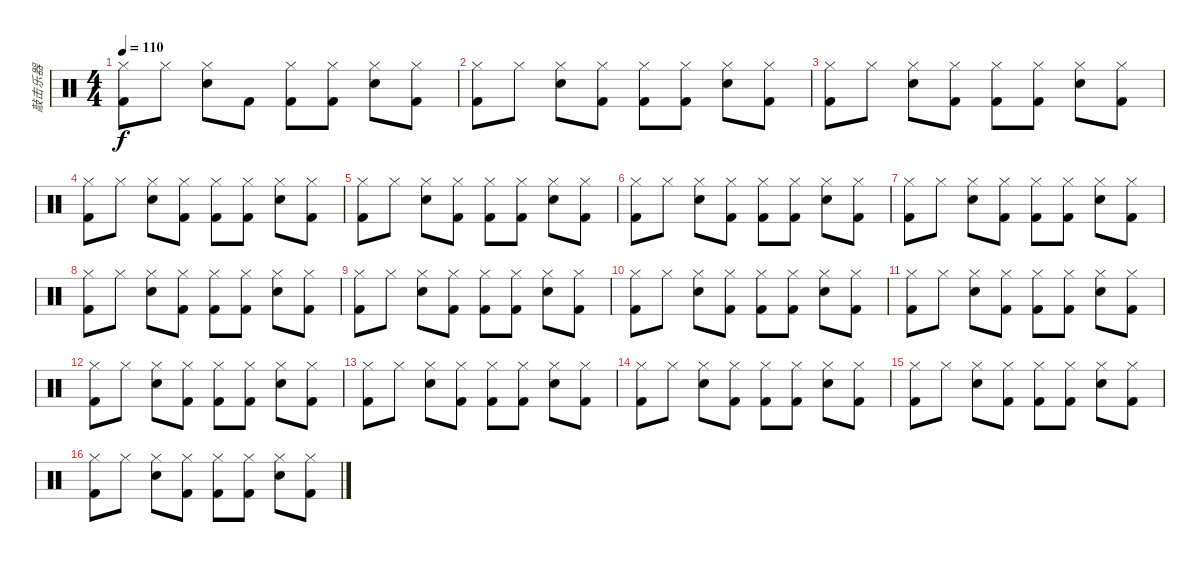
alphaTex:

\track ("敲击乐器" "敲击乐器") {instrument percussion}
\staff {score}
\articulation defaults
\ts (4 4)
\tempo 110
\clef neutral
\ks c
("Hi-Hat (closed)" "Kick (hit) 2").8{dy f} "Hi-Hat (closed)".8 ("Hi-Hat (closed)" "Electric Snare (hit)").8 "Kick (hit) 2".8 ("Kick (hit) 2" "Hi-Hat (closed)").8 ("Kick (hit) 2" "Hi-Hat (closed)").8 ("Electric Snare (hit)" "Hi-Hat (closed)").8 ("Hi-Hat (closed)" "Kick (hit) 2").8 |
("Kick (hit) 2" "Hi-Hat (closed)").8 "Hi-Hat (closed)".8 ("Hi-Hat (closed)" "Electric Snare (hit)").8 ("Kick (hit) 2" "Hi-Hat (closed)").8 ("Hi-Hat (closed)" "Kick (hit) 2").8 ("Hi-Hat (closed)" "Kick (hit) 2").8 ("Hi-Hat (closed)" "Electric Snare (hit)").8 ("Kick (hit) 2" "Hi-Hat (closed)").8 |
("Hi-Hat (closed)" "Kick (hit) 2").8 "Hi-Hat (closed)".8 ("Electric Snare (hit)" "Hi-Hat (closed)").8 ("Kick (hit) 2" "Hi-Hat (closed)").8 ("Hi-Hat (closed)" "Kick (hit) 2").8 ("Kick (hit) 2" "Hi-Hat (closed)").8 ("Electric Snare (hit)" "Hi-Hat (closed)").8 ("Hi-Hat (closed)" "Kick (hit) 2").8 |
("Kick (hit) 2" "Hi-Hat (closed)").8 "Hi-Hat (closed)".8 ("Hi-Hat (closed)" "Electric Snare (hit)").8 ("Kick (hit) 2" "Hi-Hat (closed)").8 ("Hi-Hat (closed)" "Kick (hit) 2").8 ("Hi-Hat (closed)" "Kick (hit) 2").8 ("Hi-Hat (closed)" "Electric Snare (hit)").8 ("Kick (hit) 2" "Hi-Hat (closed)").8 |
("Hi-Hat (closed)" "Kick (hit) 2").8 "Hi-Hat (closed)".8 ("Electric Snare (hit)" "Hi-Hat (closed)").8 ("Hi-Hat (closed)" "Kick (hit) 2").8 ("Kick (hit) 2" "Hi-Hat (closed)").8 ("Hi-Hat (closed)" "Kick (hit) 2").8 ("Electric Snare (hit)" "Hi-Hat (closed)").8 ("Hi-Hat (closed)" "Kick (hit) 2").8 |
("Hi-Hat (closed)" "Kick (hit) 2").8 "Hi-Hat (closed)".8 ("Electric Snare (hit)" "Hi-Hat (closed)").8 ("Hi-Hat (closed)" "Kick (hit) 2").8 ("Kick (hit) 2" "Hi-Hat (closed)").8 ("Kick (hit) 2" "Hi-Hat (closed)").8 ("Electric Snare (hit)" "Hi-Hat (closed)").8 ("Hi-Hat (closed)" "Kick (hit) 2").8 |
("Kick (hit) 2" "Hi-Hat (closed)").8 "Hi-Hat (closed)".8 ("Hi-Hat (closed)" "Electric Snare (hit)").8 ("Kick (hit) 2" "Hi-Hat (closed)").8 ("Kick (hit) 2" "Hi-Hat (closed)").8 ("Kick (hit) 2" "Hi-Hat (closed)").8 ("Hi-Hat (closed)" "Electric Snare (hit)").8 ("Hi-Hat (closed)" "Kick (hit) 2").8 |
("Kick (hit) 2" "Hi-Hat (closed)").8 "Hi-Hat (closed)".8 ("Hi-Hat (closed)" "Electric Snare (hit)").8 ("Kick (hit) 2" "Hi-Hat (closed)").8 ("Kick (hit) 2" "Hi-Hat (closed)").8 ("Kick (hit) 2" "Hi-Hat (closed)").8 ("Hi-Hat (closed)" "Electric Snare (hit)").8 ("Kick (hit) 2" "Hi-Hat (closed)").8 |
("Hi-Hat (closed)" "Kick (hit) 2").8 "Hi-Hat (closed)".8 ("Electric Snare (hit)" "Hi-Hat (closed)").8 ("Hi-Hat (closed)" "Kick (hit) 2").8 ("Hi-Hat (closed)" "Kick (hit) 2").8 ("Hi-Hat (closed)" "Kick (hit) 2").8 ("Electric Snare (hit)" "Hi-Hat (closed)").8 ("Hi-Hat (closed)" "Kick (hit) 2").8 |
("Kick (hit) 2" "Hi-Hat (closed)").8 "Hi-Hat (closed)".8 ("Hi-Hat (closed)" "Electric Snare (hit)").8 ("Kick (hit) 2" "Hi-Hat (closed)").8 ("Kick (hit) 2" "Hi-Hat (closed)").8 ("Kick (hit) 2" "Hi-Hat (closed)").8 ("Hi-Hat (closed)" "Electric Snare (hit)").8 ("Kick (hit) 2" "Hi-Hat (closed)").8 |
("Kick (hit) 2" "Hi-Hat (closed)").8 "Hi-Hat (closed)".8 ("Hi-Hat (closed)" "Electric Snare (hit)").8 ("Kick (hit) 2" "Hi-Hat (closed)").8 ("Hi-Hat (closed)" "Kick (hit) 2").8 ("Hi-Hat (closed)" "Kick (hit) 2").8 ("Hi-Hat (closed)" "Electric Snare (hit)").8 ("Kick (hit) 2" "Hi-Hat (closed)").8 |
("Hi-Hat (closed)" "Kick (hit) 2").8 "Hi-Hat (closed)".8 ("Electric Snare (hit)" "Hi-Hat (closed)").8 ("Hi-Hat (closed)" "Kick (hit) 2").8 ("Kick (hit) 2" "Hi-Hat (closed)").8 ("Kick (hit) 2" "Hi-Hat (closed)").8 ("Electric Snare (hit)" "Hi-Hat (closed)").8 ("Hi-Hat (closed)" "Kick (hit) 2").8 |
("Hi-Hat (closed)" "Kick (hit) 2").8 "Hi-Hat (closed)".8 ("Electric Snare (hit)" "Hi-Hat (closed)").8 ("Hi-Hat (closed)" "Kick (hit) 2").8 ("Kick (hit) 2" "Hi-Hat (closed)").8 ("Kick (hit) 2" "Hi-Hat (closed)").8 ("Electric Snare (hit)" "Hi-Hat (closed)").8 ("Hi-Hat (closed)" "Kick (hit) 2").8 |
("Kick (hit) 2" "Hi-Hat (closed)").8 "Hi-Hat (closed)".8 ("Hi-Hat (closed)" "Electric Snare (hit)").8 ("Kick (hit) 2" "Hi-Hat (closed)").8 ("Hi-Hat (closed)" "Kick (hit) 2").8 ("Hi-Hat (closed)" "Kick (hit) 2").8 ("Hi-Hat (closed)" "Electric Snare (hit)").8 ("Kick (hit) 2" "Hi-Hat (closed)").8 |
("Hi-Hat (closed)" "Kick (hit) 2").8 "Hi-Hat (closed)".8 ("Electric Snare (hit)" "Hi-Hat (closed)").8 ("Hi-Hat (closed)" "Kick (hit) 2").8 ("Kick (hit) 2" "Hi-Hat (closed)").8 ("Kick (hit) 2" "Hi-Hat (closed)").8 ("Electric Snare (hit)" "Hi-Hat (closed)").8 ("Hi-Hat (closed)" "Kick (hit) 2").8 |
("Kick (hit) 2" "Hi-Hat (closed)").8 "Hi-Hat (closed)".8 ("Electric Snare (hit)" "Hi-Hat (closed)").8 ("Hi-Hat (closed)" "Kick (hit) 2").8 ("Hi-Hat (closed)" "Kick (hit) 2").8 ("Hi-Hat (closed)" "Kick (hit) 2").8 ("Hi-Hat (closed)" "Electric Snare (hit)").8 ("Kick (hit) 2" "Hi-Hat (closed)").8
